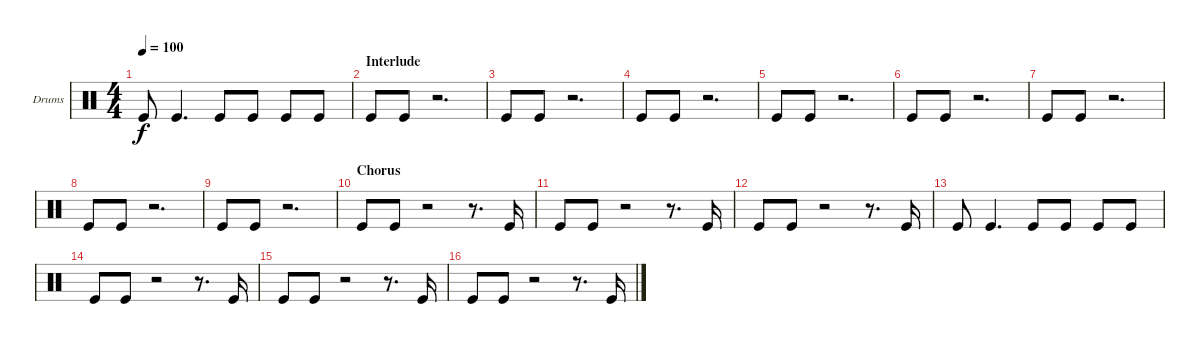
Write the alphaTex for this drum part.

\bracketExtendMode groupsimilarinstruments
\firstSystemTrackNameOrientation horizontal
\otherSystemsTrackNameOrientation horizontal
\track ("Drums overdubbed" "Drums") {instrument percussion}
\staff {score}
\articulation defaults
\ts (4 4)
\tempo 100
\clef neutral
\ks c "Kick (hit)".8{dy f} "Kick (hit)".4{d} "Kick (hit)".8 "Kick (hit)".8 "Kick (hit)".8 "Kick (hit)".8
|
\section ("" "Interlude")
"Kick (hit)".8 "Kick (hit)".8 r.2{d} |
"Kick (hit)".8 "Kick (hit)".8 r.2{d} |
"Kick (hit)".8 "Kick (hit)".8 r.2{d} |
"Kick (hit)".8 "Kick (hit)".8 r.2{d} |
"Kick (hit)".8 "Kick (hit)".8 r.2{d} |
"Kick (hit)".8 "Kick (hit)".8 r.2{d} |
"Kick (hit)".8 "Kick (hit)".8 r.2{d} |
"Kick (hit)".8 "Kick (hit)".8 r.2{d} |
\section ("" "Chorus")
"Kick (hit)".8 "Kick (hit)".8 r.2 r.8{d} "Kick (hit)".16 |
"Kick (hit)".8 "Kick (hit)".8 r.2 r.8{d} "Kick (hit)".16 |
"Kick (hit)".8 "Kick (hit)".8 r.2 r.8{d} "Kick (hit)".16 |
"Kick (hit)".8 "Kick (hit)".4{d} "Kick (hit)".8 "Kick (hit)".8 "Kick (hit)".8 "Kick (hit)".8 |
"Kick (hit)".8 "Kick (hit)".8 r.2 r.8{d} "Kick (hit)".16 |
"Kick (hit)".8 "Kick (hit)".8 r.2 r.8{d} "Kick (hit)".16 |
"Kick (hit)".8 "Kick (hit)".8 r.2 r.8{d} "Kick (hit)".16
